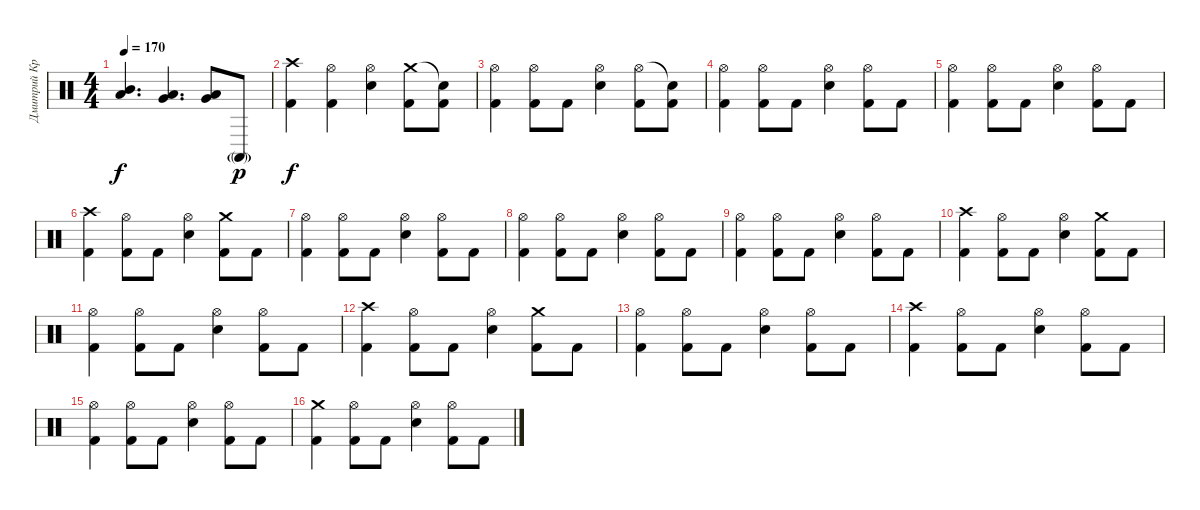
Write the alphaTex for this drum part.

\track ("Дмитрий Кривенков" "Дмитрий Кр") {instrument percussion}
\staff {score}
\articulation defaults
\ts (4 4)
\tempo 170
\clef neutral
\ks c
("Mid Tom (hit)" "Low Tom (hit)").4{d dy f} ("Low Tom (hit)" "Very Low Tom (hit)").4{d} ("Low Floor Tom (hit)" "Very Low Tom (hit)").8 "Conga high (mute)"{g}.8{dy p} |
("Crash high (hit)" "Kick (hit) 2").4{dy f} ("Hi-Hat (open)" "Kick (hit) 2").4 ("Hi-Hat (open)" "Electric Snare (hit)").4 ("Crash medium (hit)" "Kick (hit) 2").8 ("Snare (hit)"{t} "Kick (hit) 2").8 |
("Hi-Hat (open)" "Kick (hit) 2").4 ("Hi-Hat (open)" "Kick (hit) 2").8 "Kick (hit) 2".8 ("Hi-Hat (open)" "Electric Snare (hit)").4 ("Hi-Hat (open)" "Kick (hit) 2").8 ("Snare (hit)"{t} "Kick (hit) 2").8 |
("Hi-Hat (open)" "Kick (hit) 2").4 ("Hi-Hat (open)" "Kick (hit) 2").8 "Kick (hit) 2".8 ("Hi-Hat (open)" "Electric Snare (hit)").4 ("Hi-Hat (open)" "Kick (hit) 2").8 "Kick (hit) 2".8 |
("Hi-Hat (open)" "Kick (hit) 2").4 ("Hi-Hat (open)" "Kick (hit) 2").8 "Kick (hit) 2".8 ("Hi-Hat (open)" "Electric Snare (hit)").4 ("Hi-Hat (open)" "Kick (hit) 2").8 "Kick (hit) 2".8 |
("Crash high (hit)" "Kick (hit) 2").4 ("Hi-Hat (open)" "Kick (hit) 2").8 "Kick (hit) 2".8 ("Hi-Hat (open)" "Electric Snare (hit)").4 ("Crash medium (hit)" "Kick (hit) 2").8 "Kick (hit) 2".8 |
("Hi-Hat (open)" "Kick (hit) 2").4 ("Hi-Hat (open)" "Kick (hit) 2").8 "Kick (hit) 2".8 ("Hi-Hat (open)" "Electric Snare (hit)").4 ("Hi-Hat (open)" "Kick (hit) 2").8 "Kick (hit) 2".8 |
("Hi-Hat (open)" "Kick (hit) 2").4 ("Hi-Hat (open)" "Kick (hit) 2").8 "Kick (hit) 2".8 ("Hi-Hat (open)" "Electric Snare (hit)").4 ("Hi-Hat (open)" "Kick (hit) 2").8 "Kick (hit) 2".8 |
("Hi-Hat (open)" "Kick (hit) 2").4 ("Hi-Hat (open)" "Kick (hit) 2").8 "Kick (hit) 2".8 ("Hi-Hat (open)" "Electric Snare (hit)").4 ("Hi-Hat (open)" "Kick (hit) 2").8 "Kick (hit) 2".8 |
("Crash high (hit)" "Kick (hit) 2").4 ("Hi-Hat (open)" "Kick (hit) 2").8 "Kick (hit) 2".8 ("Hi-Hat (open)" "Electric Snare (hit)").4 ("Crash medium (hit)" "Kick (hit) 2").8 "Kick (hit) 2".8 |
("Hi-Hat (open)" "Kick (hit) 2").4 ("Hi-Hat (open)" "Kick (hit) 2").8 "Kick (hit) 2".8 ("Hi-Hat (open)" "Electric Snare (hit)").4 ("Hi-Hat (open)" "Kick (hit) 2").8 "Kick (hit) 2".8 |
("Crash high (hit)" "Kick (hit) 2").4 ("Hi-Hat (open)" "Kick (hit) 2").8 "Kick (hit) 2".8 ("Hi-Hat (open)" "Electric Snare (hit)").4 ("Crash medium (hit)" "Kick (hit) 2").8 "Kick (hit) 2".8 |
("Hi-Hat (open)" "Kick (hit) 2").4 ("Hi-Hat (open)" "Kick (hit) 2").8 "Kick (hit) 2".8 ("Hi-Hat (open)" "Electric Snare (hit)").4 ("Hi-Hat (open)" "Kick (hit) 2").8 "Kick (hit) 2".8 |
("Crash high (hit)" "Kick (hit) 2").4 ("Hi-Hat (open)" "Kick (hit) 2").8 "Kick (hit) 2".8 ("Hi-Hat (open)" "Electric Snare (hit)").4 ("Hi-Hat (open)" "Kick (hit) 2").8 "Kick (hit) 2".8 |
("Hi-Hat (open)" "Kick (hit) 2").4 ("Hi-Hat (open)" "Kick (hit) 2").8 "Kick (hit) 2".8 ("Hi-Hat (open)" "Electric Snare (hit)").4 ("Hi-Hat (open)" "Kick (hit) 2").8 "Kick (hit) 2".8 |
("Crash medium (hit)" "Kick (hit) 2").4 ("Hi-Hat (open)" "Kick (hit) 2").8 "Kick (hit) 2".8 ("Hi-Hat (open)" "Electric Snare (hit)").4 ("Hi-Hat (open)" "Kick (hit) 2").8 "Kick (hit) 2".8
